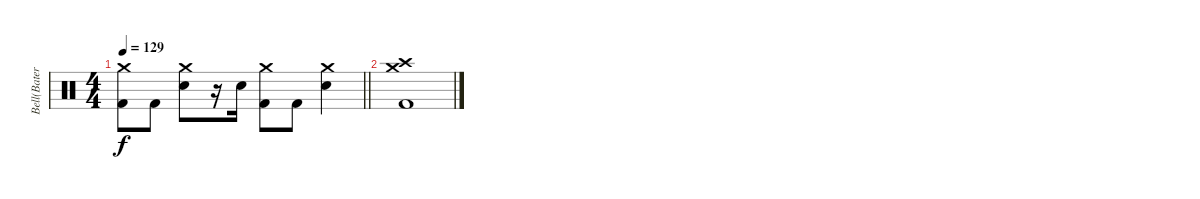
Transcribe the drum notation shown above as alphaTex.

\track ("Bell(Bateria)" "Bell(Bater") {instrument percussion}
\staff {score}
\articulation defaults
\ts (4 4)
\tempo 129
\clef neutral
\barLineRight lightlight
\ks c
("Crash medium (hit)" "Kick (hit) 2").8{dy f} "Kick (hit) 2".8 ("Crash medium (hit)" "Electric Snare (hit)").8 r.16 "Electric Snare (hit)".16 ("Crash medium (hit)" "Kick (hit) 2").8 "Kick (hit) 2".8 ("Crash medium (hit)" "Electric Snare (hit)").4 |
("Crash high (hit)" "Crash medium (hit)" "Kick (hit) 2").1
